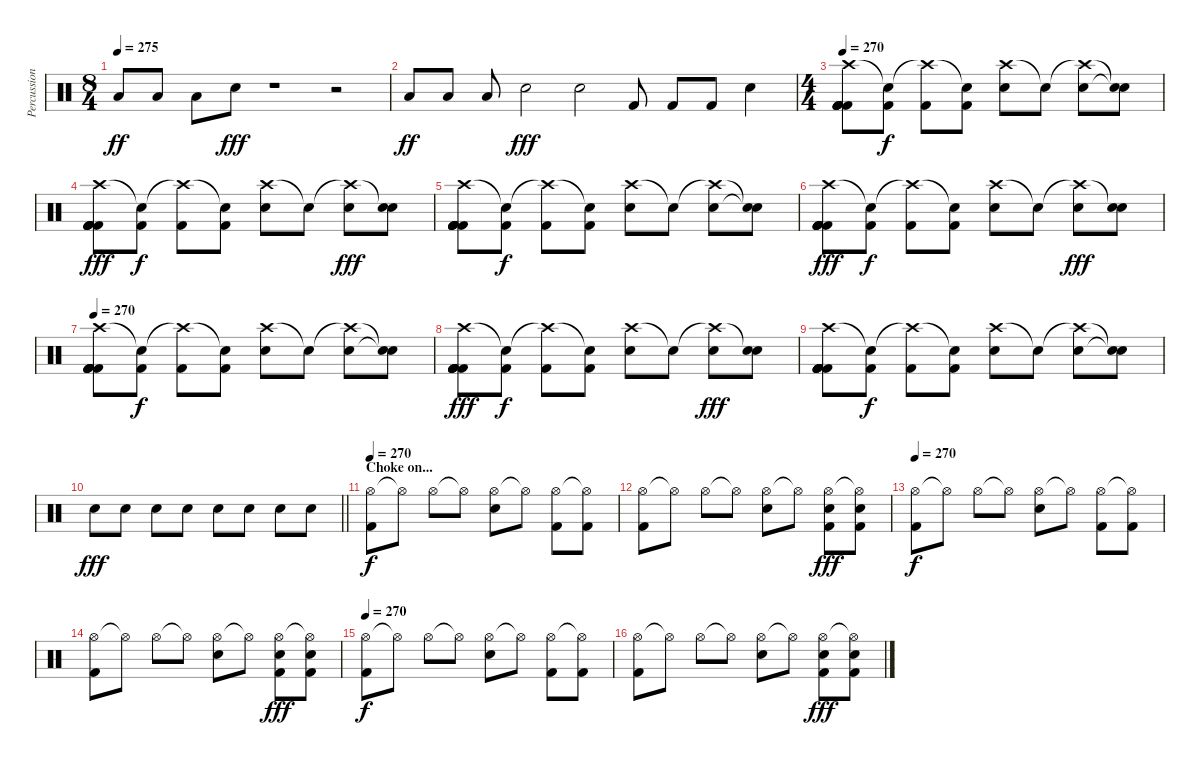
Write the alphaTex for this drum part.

\track ("Percussion" "Percussion") {instrument percussion}
\staff {score}
\articulation defaults
\ts (8 4)
\tempo 275
\clef neutral
\ks c "Low Floor Tom (hit)".8{dy ff} "Low Floor Tom (hit)".8 "Low Floor Tom (hit)".8 "Electric Snare (hit)".8{dy fff}
r.1 r.2 |
"Low Floor Tom (hit)".8{dy ff} "Low Floor Tom (hit)".8 "Low Floor Tom (hit)".8 "Electric Snare (hit)".2{dy fff} "Electric Snare (hit)".2 "Kick (hit) 2".8 "Kick (hit) 2".8 "Kick (hit) 2".8 "Electric Snare (hit)".4 |
\ts (4 4)
\tempo 270
("Crash high (hit)" "Kick (hit) 2" "Kick (hit) 2" "Kick (hit) 2" "Kick (hit) 2" "Kick (hit) 2").8 ("Snare (hit)"{t} "Kick (hit) 2").8{dy f} ("Crash high (hit)"{t} "Kick (hit) 2").8 ("Snare (hit)"{t} "Kick (hit) 2").8 ("Crash high (hit)" "Electric Snare (hit)").8 "Snare (hit)"{t}.8 ("Crash high (hit)"{t} "Electric Snare (hit)").8 ("Snare (hit)"{t} "Electric Snare (hit)"{t}).8 |
("Crash high (hit)" "Kick (hit) 2" "Kick (hit) 2" "Kick (hit) 2" "Kick (hit) 2" "Kick (hit) 2").8{dy fff} ("Snare (hit)"{t} "Kick (hit) 2").8{dy f} ("Crash high (hit)"{t} "Kick (hit) 2").8 ("Snare (hit)"{t} "Kick (hit) 2").8 ("Crash high (hit)" "Electric Snare (hit)").8 "Snare (hit)"{t}.8 ("Crash high (hit)"{t} "Electric Snare (hit)").8{dy fff} ("Snare (hit)"{t} "Electric Snare (hit)").8 |
("Crash high (hit)" "Kick (hit) 2" "Kick (hit) 2" "Kick (hit) 2" "Kick (hit) 2" "Kick (hit) 2").8 ("Snare (hit)"{t} "Kick (hit) 2").8{dy f} ("Crash high (hit)"{t} "Kick (hit) 2").8 ("Snare (hit)"{t} "Kick (hit) 2").8 ("Crash high (hit)" "Electric Snare (hit)").8 "Snare (hit)"{t}.8 ("Crash high (hit)"{t} "Electric Snare (hit)").8 ("Snare (hit)"{t} "Electric Snare (hit)"{t}).8 |
("Crash high (hit)" "Kick (hit) 2" "Kick (hit) 2" "Kick (hit) 2" "Kick (hit) 2" "Kick (hit) 2").8{dy fff} ("Snare (hit)"{t} "Kick (hit) 2").8{dy f} ("Crash high (hit)"{t} "Kick (hit) 2").8 ("Snare (hit)"{t} "Kick (hit) 2").8 ("Crash high (hit)" "Electric Snare (hit)").8 "Snare (hit)"{t}.8 ("Crash high (hit)"{t} "Electric Snare (hit)").8{dy fff} ("Snare (hit)"{t} "Electric Snare (hit)").8 |
\tempo 270
("Crash high (hit)" "Kick (hit) 2" "Kick (hit) 2" "Kick (hit) 2" "Kick (hit) 2" "Kick (hit) 2").8 ("Snare (hit)"{t} "Kick (hit) 2").8{dy f} ("Crash high (hit)"{t} "Kick (hit) 2").8 ("Snare (hit)"{t} "Kick (hit) 2").8 ("Crash high (hit)" "Electric Snare (hit)").8 "Snare (hit)"{t}.8 ("Crash high (hit)"{t} "Electric Snare (hit)").8 ("Snare (hit)"{t} "Electric Snare (hit)"{t}).8 |
("Crash high (hit)" "Kick (hit) 2" "Kick (hit) 2" "Kick (hit) 2" "Kick (hit) 2" "Kick (hit) 2").8{dy fff} ("Snare (hit)"{t} "Kick (hit) 2").8{dy f} ("Crash high (hit)"{t} "Kick (hit) 2").8 ("Snare (hit)"{t} "Kick (hit) 2").8 ("Crash high (hit)" "Electric Snare (hit)").8 "Snare (hit)"{t}.8 ("Crash high (hit)"{t} "Electric Snare (hit)").8{dy fff} ("Snare (hit)"{t} "Electric Snare (hit)").8 |
("Crash high (hit)" "Kick (hit) 2" "Kick (hit) 2" "Kick (hit) 2" "Kick (hit) 2" "Kick (hit) 2").8 ("Snare (hit)"{t} "Kick (hit) 2").8{dy f} ("Crash high (hit)"{t} "Kick (hit) 2").8 ("Snare (hit)"{t} "Kick (hit) 2").8 ("Crash high (hit)" "Electric Snare (hit)").8 "Snare (hit)"{t}.8 ("Crash high (hit)"{t} "Electric Snare (hit)").8 ("Snare (hit)"{t} "Electric Snare (hit)"{t}).8 |
\barLineRight lightlight "Electric Snare (hit)".8{dy fff} "Electric Snare (hit)".8 "Electric Snare (hit)".8 "Electric Snare (hit)".8 "Electric Snare (hit)".8 "Electric Snare (hit)".8 "Electric Snare (hit)".8 "Electric Snare (hit)".8
|
\section ("" "Choke on...")
\tempo 270
("Hi-Hat (open)" "Kick (hit) 2").8{dy f} "Hi-Hat (open)"{t}.8 "Hi-Hat (open)".8 "Hi-Hat (open)"{t}.8 ("Hi-Hat (open)" "Electric Snare (hit)").8 "Hi-Hat (open)"{t}.8 ("Hi-Hat (open)" "Kick (hit) 2").8 ("Hi-Hat (open)"{t} "Kick (hit) 2").8 |
("Hi-Hat (open)" "Kick (hit) 2").8 "Hi-Hat (open)"{t}.8 "Hi-Hat (open)".8 "Hi-Hat (open)"{t}.8 ("Hi-Hat (open)" "Electric Snare (hit)").8 "Hi-Hat (open)"{t}.8 ("Hi-Hat (open)" "Electric Snare (hit)" "Kick (hit) 2").8{dy fff} ("Hi-Hat (open)"{t} "Electric Snare (hit)" "Kick (hit) 2").8 |
\tempo 270
("Hi-Hat (open)" "Kick (hit) 2").8{dy f} "Hi-Hat (open)"{t}.8 "Hi-Hat (open)".8 "Hi-Hat (open)"{t}.8 ("Hi-Hat (open)" "Electric Snare (hit)").8 "Hi-Hat (open)"{t}.8 ("Hi-Hat (open)" "Kick (hit) 2").8 ("Hi-Hat (open)"{t} "Kick (hit) 2").8 |
("Hi-Hat (open)" "Kick (hit) 2").8 "Hi-Hat (open)"{t}.8 "Hi-Hat (open)".8 "Hi-Hat (open)"{t}.8 ("Hi-Hat (open)" "Electric Snare (hit)").8 "Hi-Hat (open)"{t}.8 ("Hi-Hat (open)" "Electric Snare (hit)" "Kick (hit) 2").8{dy fff} ("Hi-Hat (open)"{t} "Electric Snare (hit)" "Kick (hit) 2").8 |
\tempo 270
("Hi-Hat (open)" "Kick (hit) 2").8{dy f} "Hi-Hat (open)"{t}.8 "Hi-Hat (open)".8 "Hi-Hat (open)"{t}.8 ("Hi-Hat (open)" "Electric Snare (hit)").8 "Hi-Hat (open)"{t}.8 ("Hi-Hat (open)" "Kick (hit) 2").8 ("Hi-Hat (open)"{t} "Kick (hit) 2").8 |
("Hi-Hat (open)" "Kick (hit) 2").8 "Hi-Hat (open)"{t}.8 "Hi-Hat (open)".8 "Hi-Hat (open)"{t}.8 ("Hi-Hat (open)" "Electric Snare (hit)").8 "Hi-Hat (open)"{t}.8 ("Hi-Hat (open)" "Electric Snare (hit)" "Kick (hit) 2").8{dy fff} ("Hi-Hat (open)"{t} "Electric Snare (hit)" "Kick (hit) 2").8
